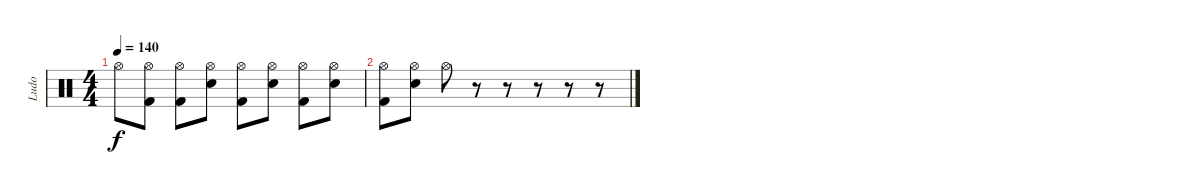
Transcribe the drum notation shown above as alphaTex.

\track ("Ludo" "Ludo") {instrument percussion}
\staff {score}
\articulation defaults
\ts (4 4)
\tempo 140
\clef neutral
\ks c "Hi-Hat (open)".8{dy f}
("Hi-Hat (open)" "Kick (hit) 2").8 ("Hi-Hat (open)" "Kick (hit) 2").8 ("Hi-Hat (open)" "Electric Snare (hit)").8 ("Hi-Hat (open)" "Kick (hit) 2").8 ("Hi-Hat (open)" "Electric Snare (hit)").8 ("Hi-Hat (open)" "Kick (hit) 2").8 ("Hi-Hat (open)" "Electric Snare (hit)").8 |
("Hi-Hat (open)" "Kick (hit) 2").8 ("Hi-Hat (open)" "Electric Snare (hit)").8 "Hi-Hat (open)".8 r.8 r.8 r.8 r.8 r.8
